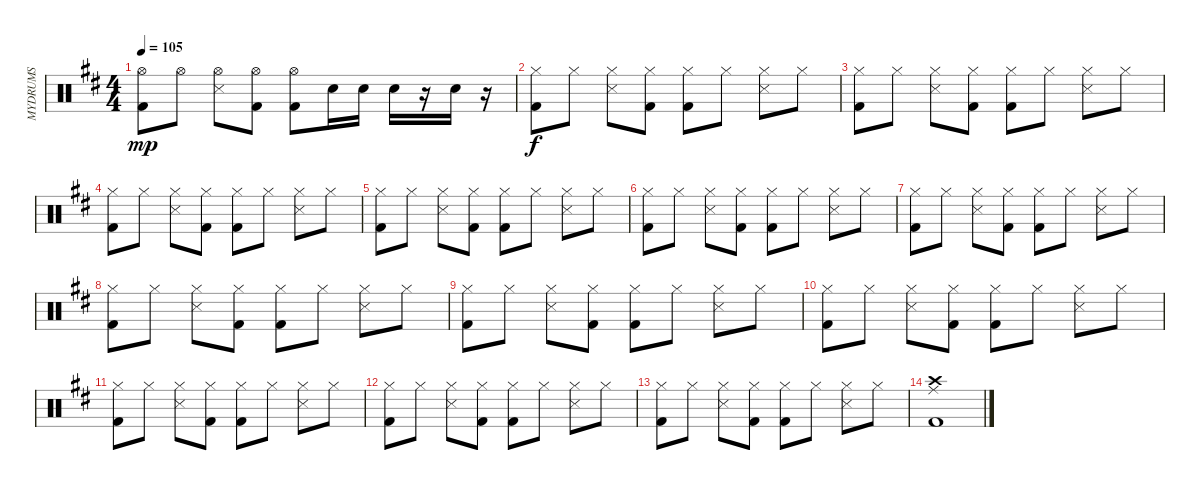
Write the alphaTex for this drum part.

\track ("MYDRUMS" "MYDRUMS") {solo instrument percussion}
\staff {score}
\articulation defaults
\ts (4 4)
\tempo 105
\clef neutral
\ks d
("Hi-Hat (open)" "Kick (hit) 2").8{dy mp} "Hi-Hat (open)".8 ("Hi-Hat (open)" "Snare (side stick) 3").8 ("Hi-Hat (open)" "Kick (hit) 2").8 ("Hi-Hat (open)" "Kick (hit) 2").8 "Snare (hit) 2".16 "Snare (hit) 2".16 "Snare (hit) 2".16 r.16 "Snare (hit) 2".16 r.16 |
("Hi-Hat (closed)" "Kick (hit) 2").8{dy f} "Hi-Hat (closed)".8 ("Hi-Hat (closed)" "Snare (side stick) 3").8 ("Hi-Hat (closed)" "Kick (hit) 2").8 ("Hi-Hat (closed)" "Kick (hit) 2").8 "Hi-Hat (closed)".8 ("Hi-Hat (closed)" "Snare (side stick) 3").8 "Hi-Hat (closed)".8 |
("Hi-Hat (closed)" "Kick (hit) 2").8 "Hi-Hat (closed)".8 ("Hi-Hat (closed)" "Snare (side stick) 3").8 ("Hi-Hat (closed)" "Kick (hit) 2").8 ("Hi-Hat (closed)" "Kick (hit) 2").8 "Hi-Hat (closed)".8 ("Hi-Hat (closed)" "Snare (side stick) 3").8 "Hi-Hat (closed)".8 |
("Hi-Hat (closed)" "Kick (hit) 2").8 "Hi-Hat (closed)".8 ("Hi-Hat (closed)" "Snare (side stick) 3").8 ("Hi-Hat (closed)" "Kick (hit) 2").8 ("Hi-Hat (closed)" "Kick (hit) 2").8 "Hi-Hat (closed)".8 ("Hi-Hat (closed)" "Snare (side stick) 3").8 "Hi-Hat (closed)".8 |
("Hi-Hat (closed)" "Kick (hit) 2").8 "Hi-Hat (closed)".8 ("Hi-Hat (closed)" "Snare (side stick) 3").8 ("Hi-Hat (closed)" "Kick (hit) 2").8 ("Hi-Hat (closed)" "Kick (hit) 2").8 "Hi-Hat (closed)".8 ("Hi-Hat (closed)" "Snare (side stick) 3").8 "Hi-Hat (closed)".8 |
("Hi-Hat (closed)" "Kick (hit) 2").8 "Hi-Hat (closed)".8 ("Hi-Hat (closed)" "Snare (side stick) 3").8 ("Hi-Hat (closed)" "Kick (hit) 2").8 ("Hi-Hat (closed)" "Kick (hit) 2").8 "Hi-Hat (closed)".8 ("Hi-Hat (closed)" "Snare (side stick) 3").8 "Hi-Hat (closed)".8 |
("Hi-Hat (closed)" "Kick (hit) 2").8 "Hi-Hat (closed)".8 ("Hi-Hat (closed)" "Snare (side stick) 3").8 ("Hi-Hat (closed)" "Kick (hit) 2").8 ("Hi-Hat (closed)" "Kick (hit) 2").8 "Hi-Hat (closed)".8 ("Hi-Hat (closed)" "Snare (side stick) 3").8 "Hi-Hat (closed)".8 |
("Hi-Hat (closed)" "Kick (hit) 2").8 "Hi-Hat (closed)".8 ("Hi-Hat (closed)" "Snare (side stick) 3").8 ("Hi-Hat (closed)" "Kick (hit) 2").8 ("Hi-Hat (closed)" "Kick (hit) 2").8 "Hi-Hat (closed)".8 ("Hi-Hat (closed)" "Snare (side stick) 3").8 "Hi-Hat (closed)".8 |
("Hi-Hat (closed)" "Kick (hit) 2").8 "Hi-Hat (closed)".8 ("Hi-Hat (closed)" "Snare (side stick) 3").8 ("Hi-Hat (closed)" "Kick (hit) 2").8 ("Hi-Hat (closed)" "Kick (hit) 2").8 "Hi-Hat (closed)".8 ("Hi-Hat (closed)" "Snare (side stick) 3").8 "Hi-Hat (closed)".8 |
("Hi-Hat (closed)" "Kick (hit) 2").8 "Hi-Hat (closed)".8 ("Hi-Hat (closed)" "Snare (side stick) 3").8 ("Hi-Hat (closed)" "Kick (hit) 2").8 ("Hi-Hat (closed)" "Kick (hit) 2").8 "Hi-Hat (closed)".8 ("Hi-Hat (closed)" "Snare (side stick) 3").8 "Hi-Hat (closed)".8 |
("Hi-Hat (closed)" "Kick (hit) 2").8 "Hi-Hat (closed)".8 ("Hi-Hat (closed)" "Snare (side stick) 3").8 ("Hi-Hat (closed)" "Kick (hit) 2").8 ("Hi-Hat (closed)" "Kick (hit) 2").8 "Hi-Hat (closed)".8 ("Hi-Hat (closed)" "Snare (side stick) 3").8 "Hi-Hat (closed)".8 |
("Hi-Hat (closed)" "Kick (hit) 2").8 "Hi-Hat (closed)".8 ("Hi-Hat (closed)" "Snare (side stick) 3").8 ("Hi-Hat (closed)" "Kick (hit) 2").8 ("Hi-Hat (closed)" "Kick (hit) 2").8 "Hi-Hat (closed)".8 ("Hi-Hat (closed)" "Snare (side stick) 3").8 "Hi-Hat (closed)".8 |
("Hi-Hat (closed)" "Kick (hit) 2").8 "Hi-Hat (closed)".8 ("Hi-Hat (closed)" "Snare (side stick) 3").8 ("Hi-Hat (closed)" "Kick (hit) 2").8 ("Hi-Hat (closed)" "Kick (hit) 2").8 "Hi-Hat (closed)".8 ("Hi-Hat (closed)" "Snare (side stick) 3").8 "Hi-Hat (closed)".8 |
("Crash high (hit)" "Ride (middle)" "Kick (hit) 2").1
